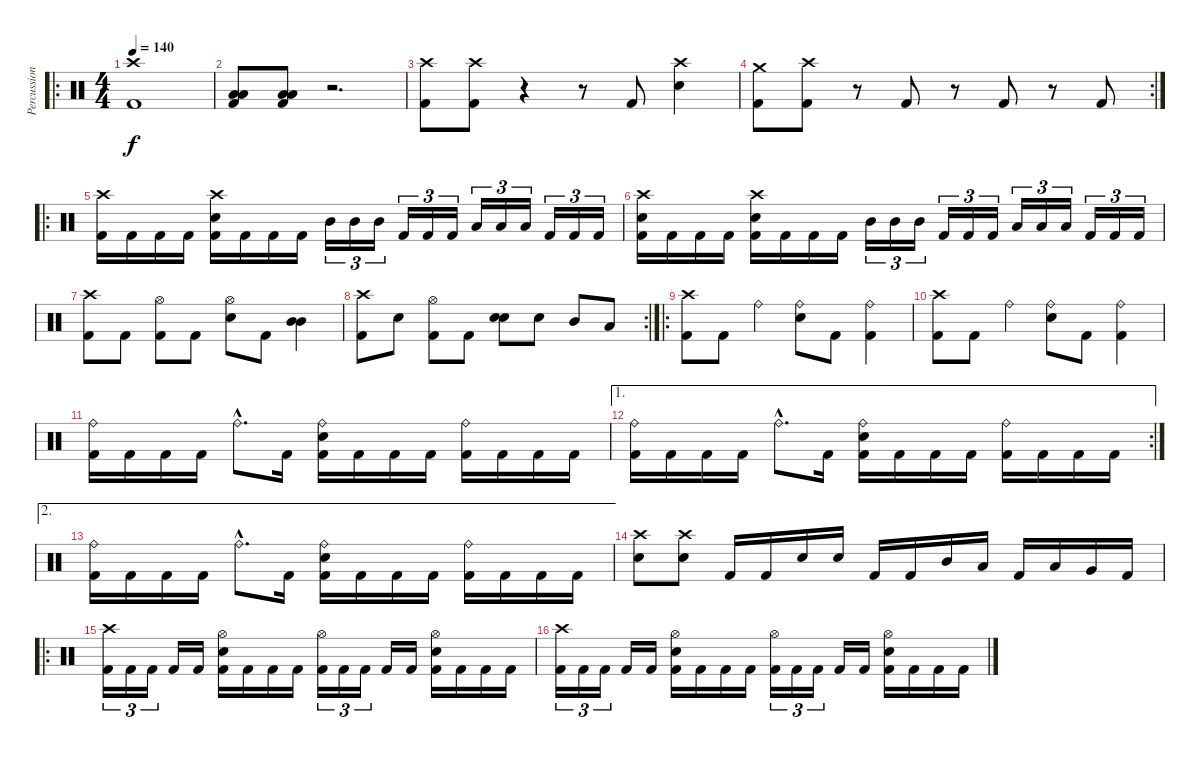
\track ("Percussions" "Percussion") {instrument percussion}
\staff {score}
\articulation defaults
\ro
\ts (4 4)
\tempo 140
\clef neutral
\ks c
("Crash high (hit)" "Kick (hit) 2").1{dy f} |
("Low Floor Tom (hit)" "Low Floor Tom (hit)" "Kick (hit) 2").8 ("Low Floor Tom (hit)" "Low Floor Tom (hit)" "Kick (hit) 2").8 r.2{d} |
("Crash high (hit)" "Kick (hit) 2").8 ("Crash high (hit)" "Kick (hit) 2").8 r.4 r.8 "Kick (hit) 2".8 ("Crash high (hit)" "Snare (hit) 2").4 |
\rc 2
("Crash medium (hit)" "Kick (hit) 2").8 ("Crash high (hit)" "Kick (hit) 2").8 r.8 "Kick (hit) 2".8 r.8 "Kick (hit) 2".8 r.8 "Kick (hit) 2".8 |
\ro
("Crash high (hit)" "Kick (hit) 2").16 "Kick (hit) 2".16 "Kick (hit) 2".16 "Kick (hit) 2".16 ("Crash high (hit)" "Snare (hit) 2" "Kick (hit) 2").16 "Kick (hit) 2".16 "Kick (hit) 2".16 "Kick (hit) 2".16 "Mid Tom (hit)".16{tu (3 2)} "Mid Tom (hit)".16{tu (3 2)} "Mid Tom (hit)".16{tu (3 2)} "Kick (hit) 2".16{tu (3 2)} "Kick (hit) 2".16{tu (3 2)} "Kick (hit) 2".16{tu (3 2)} "Low Tom (hit)".16{tu (3 2)} "Low Tom (hit)".16{tu (3 2)} "Low Tom (hit)".16{tu (3 2)} "Kick (hit) 2".16{tu (3 2)} "Kick (hit) 2".16{tu (3 2)} "Kick (hit) 2".16{tu (3 2)} |
("Crash high (hit)" "Snare (hit) 2" "Kick (hit) 2").16 "Kick (hit) 2".16 "Kick (hit) 2".16 "Kick (hit) 2".16 ("Crash high (hit)" "Snare (hit) 2" "Kick (hit) 2").16 "Kick (hit) 2".16 "Kick (hit) 2".16 "Kick (hit) 2".16 "Mid Tom (hit)".16{tu (3 2)} "Mid Tom (hit)".16{tu (3 2)} "Mid Tom (hit)".16{tu (3 2)} "Kick (hit) 2".16{tu (3 2)} "Kick (hit) 2".16{tu (3 2)} "Kick (hit) 2".16{tu (3 2)} "Low Tom (hit)".16{tu (3 2)} "Low Tom (hit)".16{tu (3 2)} "Low Tom (hit)".16{tu (3 2)} "Kick (hit) 2".16{tu (3 2)} "Kick (hit) 2".16{tu (3 2)} "Kick (hit) 2".16{tu (3 2)} |
("Crash high (hit)" "Kick (hit) 2").8 "Kick (hit) 2".8 ("Hi-Hat (open)" "Kick (hit) 2").8 "Kick (hit) 2".8 ("Hi-Hat (open)" "Snare (hit) 2").8 "Kick (hit) 2".8 ("Mid Tom (hit)" "Mid Tom (hit)").4 |
\rc 2
("Crash high (hit)" "Kick (hit) 2").8 "Snare (hit) 2".8 ("Hi-Hat (open)" "Kick (hit) 2").8 "Kick (hit) 2".8 ("Snare (hit) 2" "Snare (hit) 2").8{bd 240} "Snare (hit) 2".8 "Mid Tom (hit)".8 "Low Tom (hit)".8 |
\ro
("Crash high (hit)" "Kick (hit) 2").8 "Kick (hit) 2".8 "Ride (bell)".4 ("Ride (bell)" "Snare (hit) 2").8 "Kick (hit) 2".8 ("Ride (bell)" "Kick (hit) 2").4 |
("Crash high (hit)" "Kick (hit) 2").8 "Kick (hit) 2".8 "Ride (bell)".4 ("Ride (bell)" "Snare (hit) 2").8 "Kick (hit) 2".8 ("Ride (bell)" "Kick (hit) 2").4 |
("Ride (bell)" "Kick (hit) 2").16 "Kick (hit) 2".16 "Kick (hit) 2".16 "Kick (hit) 2".16 "Ride (bell)"{hac}.8{d} "Kick (hit) 2".16 ("Ride (bell)" "Snare (hit) 2" "Kick (hit) 2").16 "Kick (hit) 2".16 "Kick (hit) 2".16 "Kick (hit) 2".16 ("Ride (bell)" "Kick (hit) 2").16 "Kick (hit) 2".16 "Kick (hit) 2".16 "Kick (hit) 2".16 |
\ae 1
\rc 2
("Ride (bell)" "Kick (hit) 2").16 "Kick (hit) 2".16 "Kick (hit) 2".16 "Kick (hit) 2".16 "Ride (bell)"{hac}.8{d} "Kick (hit) 2".16 ("Ride (bell)" "Snare (hit) 2" "Kick (hit) 2").16 "Kick (hit) 2".16 "Kick (hit) 2".16 "Kick (hit) 2".16 ("Ride (bell)" "Kick (hit) 2").16 "Kick (hit) 2".16 "Kick (hit) 2".16 "Kick (hit) 2".16 |
\ae 2
("Ride (bell)" "Kick (hit) 2").16 "Kick (hit) 2".16 "Kick (hit) 2".16 "Kick (hit) 2".16 "Ride (bell)"{hac}.8{d} "Kick (hit) 2".16 ("Ride (bell)" "Snare (hit) 2" "Kick (hit) 2").16 "Kick (hit) 2".16 "Kick (hit) 2".16 "Kick (hit) 2".16 ("Ride (bell)" "Kick (hit) 2").16 "Kick (hit) 2".16 "Kick (hit) 2".16 "Kick (hit) 2".16 |
("Crash high (hit)" "Snare (hit) 2").8 ("Crash high (hit)" "Snare (hit) 2").8 "Kick (hit) 2".16 "Kick (hit) 2".16 "Snare (hit) 2".16 "Snare (hit) 2".16 "Kick (hit) 2".16 "Kick (hit) 2".16 "Mid Tom (hit)".16 "Low Tom (hit)".16 "Kick (hit) 2".16 "Low Tom (hit)".16 "Very Low Tom (hit)".16 "Kick (hit) 2".16 |
\ro
("Crash high (hit)" "Kick (hit) 2").16{tu (3 2)} "Kick (hit) 2".16{tu (3 2)} "Kick (hit) 2".16{tu (3 2)} "Kick (hit) 2".16 "Kick (hit) 2".16 ("Hi-Hat (open)" "Snare (hit) 2" "Kick (hit) 2").16 "Kick (hit) 2".16 "Kick (hit) 2".16 "Kick (hit) 2".16 ("Hi-Hat (open)" "Kick (hit) 2").16{tu (3 2)} "Kick (hit) 2".16{tu (3 2)} "Kick (hit) 2".16{tu (3 2)} "Kick (hit) 2".16 "Kick (hit) 2".16 ("Hi-Hat (open)" "Snare (hit) 2" "Kick (hit) 2").16 "Kick (hit) 2".16 "Kick (hit) 2".16 "Kick (hit) 2".16 |
("Crash high (hit)" "Kick (hit) 2").16{tu (3 2)} "Kick (hit) 2".16{tu (3 2)} "Kick (hit) 2".16{tu (3 2)} "Kick (hit) 2".16 "Kick (hit) 2".16 ("Hi-Hat (open)" "Snare (hit) 2" "Kick (hit) 2").16 "Kick (hit) 2".16 "Kick (hit) 2".16 "Kick (hit) 2".16 ("Hi-Hat (open)" "Kick (hit) 2").16{tu (3 2)} "Kick (hit) 2".16{tu (3 2)} "Kick (hit) 2".16{tu (3 2)} "Kick (hit) 2".16 "Kick (hit) 2".16 ("Hi-Hat (open)" "Snare (hit) 2" "Kick (hit) 2").16 "Kick (hit) 2".16 "Kick (hit) 2".16 "Kick (hit) 2".16
